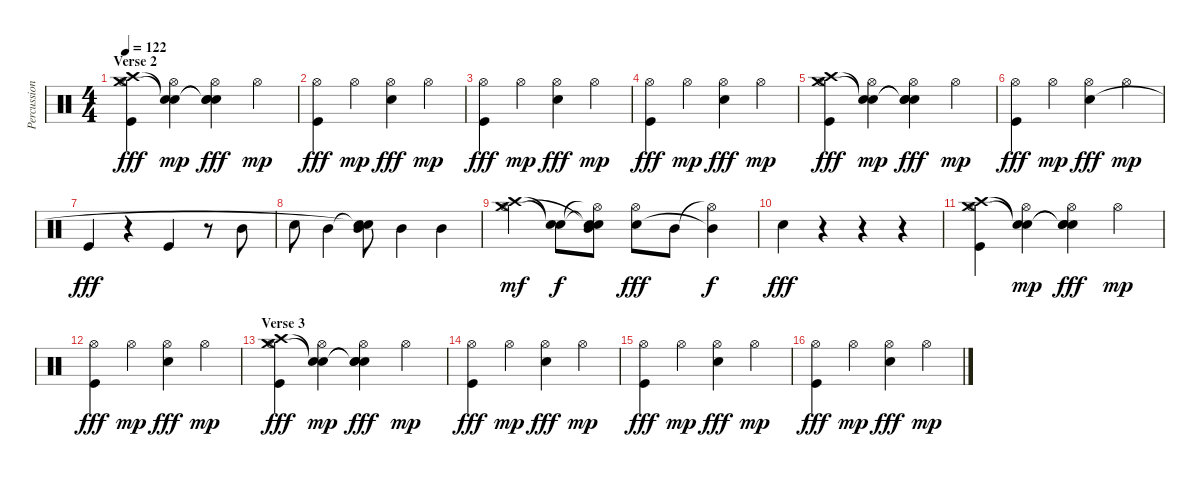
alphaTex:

\track ("Percussion" "Percussion") {instrument percussion}
\staff {score}
\articulation defaults
\ts (4 4)
\section ("" "Verse 2")
\tempo 122
\clef neutral
\ks c
("Hi-Hat (open)" "Crash high (hit)" "Crash medium (hit)" "Kick (hit)").4{dy fff} ("Hi-Hat (open)" "Snare (hit)"{t} "Snare (hit)"{t}).4{dy mp} ("Hi-Hat (open)" "Snare (hit)"{t} "Snare (hit)"{t} "Snare (hit) 2").4{dy fff} "Hi-Hat (open)".4{dy mp} |
("Hi-Hat (open)" "Kick (hit)").4{dy fff} "Hi-Hat (open)".4{dy mp} ("Hi-Hat (open)" "Snare (hit) 2").4{dy fff} "Hi-Hat (open)".4{dy mp} |
("Hi-Hat (open)" "Kick (hit)").4{dy fff} "Hi-Hat (open)".4{dy mp} ("Hi-Hat (open)" "Snare (hit) 2").4{dy fff} "Hi-Hat (open)".4{dy mp} |
("Hi-Hat (open)" "Kick (hit)").4{dy fff} "Hi-Hat (open)".4{dy mp} ("Hi-Hat (open)" "Snare (hit) 2").4{dy fff} "Hi-Hat (open)".4{dy mp} |
("Hi-Hat (open)" "Crash high (hit)" "Crash medium (hit)" "Kick (hit)").4{dy fff} ("Hi-Hat (open)" "Snare (hit)"{t} "Snare (hit)"{t}).4{dy mp} ("Hi-Hat (open)" "Snare (hit)"{t} "Snare (hit)"{t} "Snare (hit) 2").4{dy fff} "Hi-Hat (open)".4{dy mp} |
("Hi-Hat (open)" "Kick (hit)").4{dy fff} "Hi-Hat (open)".4{dy mp} ("Hi-Hat (open)" "Snare (hit) 2").4{dy fff} "Hi-Hat (open)".4{dy mp} |
"Kick (hit)".4{dy fff} r.4 "Kick (hit)".4 r.8 "Mid Tom (hit)".8 |
"Snare (hit) 2".8 "Mid Tom (hit)".4 ("Snare (hit)"{t} "Snare (hit)"{t} "Mid Tom (hit)").8 "Mid Tom (hit)".4 "Mid Tom (hit)".4 |
("Hi-Hat (open)" "Crash high (hit)" "Crash medium (hit)").4{dy mf} ("Snare (hit)"{t} "Snare (hit)"{t}).8{dy f} ("Hi-Hat (open)"{t} "Snare (hit)"{t} "Snare (hit)"{t} "Mid Tom (hit)").8 ("Hi-Hat (open)" "Snare (hit) 2").8{dy fff} "Mid Tom (hit)".8 ("Hi-Hat (open)"{t} "Mid Tom (hit)"{t}).4{dy f} |
"Snare (hit) 2".4{dy fff} r.4 r.4 r.4 |
("Hi-Hat (open)" "Crash high (hit)" "Crash medium (hit)" "Kick (hit)").4 ("Hi-Hat (open)" "Snare (hit)"{t} "Snare (hit)"{t}).4{dy mp} ("Hi-Hat (open)" "Snare (hit)"{t} "Snare (hit)"{t} "Snare (hit) 2").4{dy fff} "Hi-Hat (open)".4{dy mp} |
("Hi-Hat (open)" "Kick (hit)").4{dy fff} "Hi-Hat (open)".4{dy mp} ("Hi-Hat (open)" "Snare (hit) 2").4{dy fff} "Hi-Hat (open)".4{dy mp} |
\section ("" "Verse 3")
("Hi-Hat (open)" "Crash high (hit)" "Crash medium (hit)" "Kick (hit)").4{dy fff} ("Hi-Hat (open)" "Snare (hit)"{t} "Snare (hit)"{t}).4{dy mp} ("Hi-Hat (open)" "Snare (hit)"{t} "Snare (hit)"{t} "Snare (hit) 2").4{dy fff} "Hi-Hat (open)".4{dy mp} |
("Hi-Hat (open)" "Kick (hit)").4{dy fff} "Hi-Hat (open)".4{dy mp} ("Hi-Hat (open)" "Snare (hit) 2").4{dy fff} "Hi-Hat (open)".4{dy mp} |
("Hi-Hat (open)" "Kick (hit)").4{dy fff} "Hi-Hat (open)".4{dy mp} ("Hi-Hat (open)" "Snare (hit) 2").4{dy fff} "Hi-Hat (open)".4{dy mp} |
("Hi-Hat (open)" "Kick (hit)").4{dy fff} "Hi-Hat (open)".4{dy mp} ("Hi-Hat (open)" "Snare (hit) 2").4{dy fff} "Hi-Hat (open)".4{dy mp}
